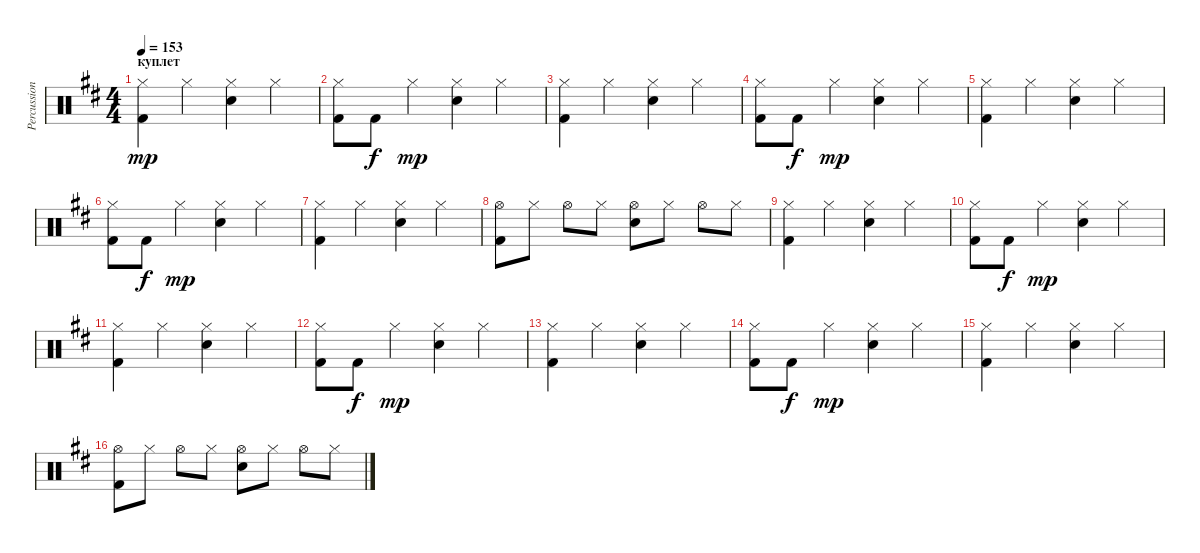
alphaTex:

\track ("Percussion" "Percussion") {instrument percussion}
\staff {score}
\articulation defaults
\ts (4 4)
\section ("" "куплет")
\tempo 153
\clef neutral
\ks bminor
("Kick (hit) 2" "Hi-Hat (closed)").4{dy mp} "Hi-Hat (closed)".4 ("Electric Snare (hit)" "Hi-Hat (closed)").4 "Hi-Hat (closed)".4 |
("Kick (hit) 2" "Hi-Hat (closed)").8 "Kick (hit) 2".8{dy f} "Hi-Hat (closed)".4{dy mp} ("Electric Snare (hit)" "Hi-Hat (closed)").4 "Hi-Hat (closed)".4 |
("Kick (hit) 2" "Hi-Hat (closed)").4 "Hi-Hat (closed)".4 ("Electric Snare (hit)" "Hi-Hat (closed)").4 "Hi-Hat (closed)".4 |
("Kick (hit) 2" "Hi-Hat (closed)").8 "Kick (hit) 2".8{dy f} "Hi-Hat (closed)".4{dy mp} ("Electric Snare (hit)" "Hi-Hat (closed)").4 "Hi-Hat (closed)".4 |
("Kick (hit) 2" "Hi-Hat (closed)").4 "Hi-Hat (closed)".4 ("Electric Snare (hit)" "Hi-Hat (closed)").4 "Hi-Hat (closed)".4 |
("Kick (hit) 2" "Hi-Hat (closed)").8 "Kick (hit) 2".8{dy f} "Hi-Hat (closed)".4{dy mp} ("Electric Snare (hit)" "Hi-Hat (closed)").4 "Hi-Hat (closed)".4 |
("Kick (hit) 2" "Hi-Hat (closed)").4 "Hi-Hat (closed)".4 ("Electric Snare (hit)" "Hi-Hat (closed)").4 "Hi-Hat (closed)".4 |
("Hi-Hat (open)" "Kick (hit) 2").8 "Hi-Hat (closed)".8 "Hi-Hat (open)".8 "Hi-Hat (closed)".8 ("Hi-Hat (open)" "Electric Snare (hit)").8 "Hi-Hat (closed)".8 "Hi-Hat (open)".8 "Hi-Hat (closed)".8 |
("Kick (hit) 2" "Hi-Hat (closed)").4 "Hi-Hat (closed)".4 ("Electric Snare (hit)" "Hi-Hat (closed)").4 "Hi-Hat (closed)".4 |
("Kick (hit) 2" "Hi-Hat (closed)").8 "Kick (hit) 2".8{dy f} "Hi-Hat (closed)".4{dy mp} ("Electric Snare (hit)" "Hi-Hat (closed)").4 "Hi-Hat (closed)".4 |
("Kick (hit) 2" "Hi-Hat (closed)").4 "Hi-Hat (closed)".4 ("Electric Snare (hit)" "Hi-Hat (closed)").4 "Hi-Hat (closed)".4 |
("Kick (hit) 2" "Hi-Hat (closed)").8 "Kick (hit) 2".8{dy f} "Hi-Hat (closed)".4{dy mp} ("Electric Snare (hit)" "Hi-Hat (closed)").4 "Hi-Hat (closed)".4 |
("Kick (hit) 2" "Hi-Hat (closed)").4 "Hi-Hat (closed)".4 ("Electric Snare (hit)" "Hi-Hat (closed)").4 "Hi-Hat (closed)".4 |
("Kick (hit) 2" "Hi-Hat (closed)").8 "Kick (hit) 2".8{dy f} "Hi-Hat (closed)".4{dy mp} ("Electric Snare (hit)" "Hi-Hat (closed)").4 "Hi-Hat (closed)".4 |
("Kick (hit) 2" "Hi-Hat (closed)").4 "Hi-Hat (closed)".4 ("Electric Snare (hit)" "Hi-Hat (closed)").4 "Hi-Hat (closed)".4 |
("Hi-Hat (open)" "Kick (hit) 2").8 "Hi-Hat (closed)".8 "Hi-Hat (open)".8 "Hi-Hat (closed)".8 ("Hi-Hat (open)" "Electric Snare (hit)").8 "Hi-Hat (closed)".8 "Hi-Hat (open)".8 "Hi-Hat (closed)".8
